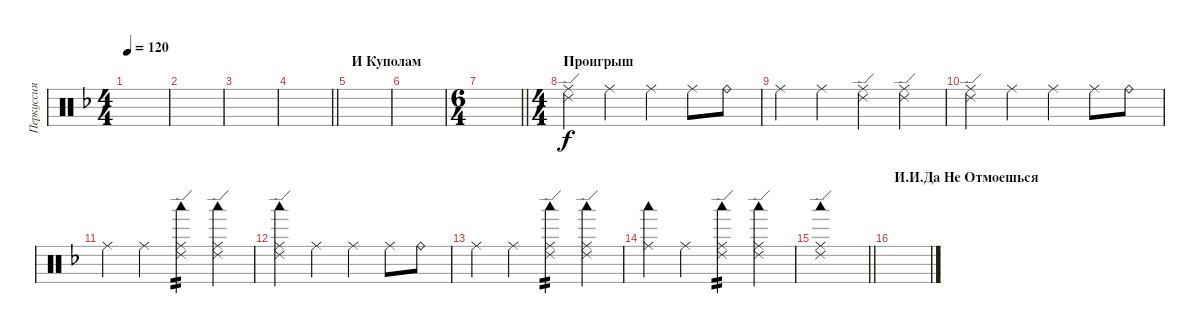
\track ("Перкуссия" "Перкуссия") {instrument percussion}
\staff {score}
\articulation defaults
\ts (4 4)
\tempo 120
\clef neutral
\ks dminor
|
|
|
\barLineRight lightlight
|
\section ("" "И Куполам")
|
|
\ts (6 4)
\barLineRight lightlight
|
\ts (4 4)
\section ("" "Проигрыш")
("Ride (middle)" "Ride (edge) 2").4 "Ride (middle)".4 "Ride (middle)".4 "Ride (middle)".8 "Ride (bell)".8 |
"Ride (middle)".4 "Ride (middle)".4 ("Ride (middle)" "Ride (edge) 2").4 ("Ride (middle)" "Ride (edge) 2").4 |
("Ride (middle)" "Ride (edge) 2").4 "Ride (middle)".4 "Ride (middle)".4 "Ride (middle)".8 "Ride (bell)".8 |
"Ride (middle)".4 "Ride (middle)".4 ("Ride (middle)" "Ride (edge) 2" "Woodblock low (hit)").4{tp 2} ("Ride (middle)" "Ride (edge) 2" "Woodblock low (hit)").4 |
("Ride (middle)" "Ride (edge) 2" "Woodblock low (hit)").4 "Ride (middle)".4 "Ride (middle)".4 "Ride (middle)".8 "Ride (bell)".8 |
"Ride (middle)".4 "Ride (middle)".4 ("Ride (middle)" "Ride (edge) 2" "Woodblock low (hit)").4{tp 2} ("Ride (middle)" "Ride (edge) 2" "Woodblock low (hit)").4 |
("Ride (middle)" "Woodblock low (hit)").4 "Ride (middle)".4 ("Ride (middle)" "Ride (edge) 2" "Woodblock low (hit)").4{tp 2} ("Ride (middle)" "Ride (edge) 2" "Woodblock low (hit)").4 |
\barLineRight lightlight
("Ride (middle)" "Ride (edge) 2" "Woodblock low (hit)").1 |
\section ("" "И.И.Да Не Отмоешься")
